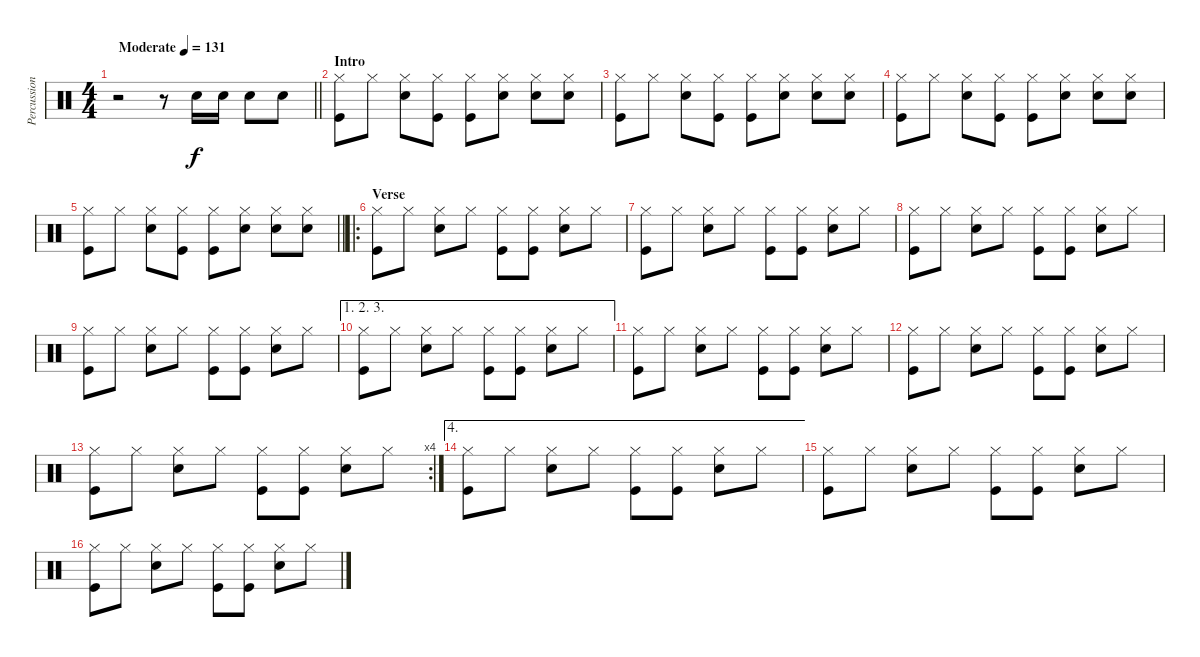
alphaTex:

\track ("Percussion" "Percussion") {instrument percussion}
\staff {score}
\articulation defaults
\ts (4 4)
\tempo (131 "Moderate")
\clef neutral
\barLineRight lightlight
\ks c
r.2{dy f} r.8 "Snare (hit) 2".16 "Snare (hit) 2".16 "Snare (hit) 2".8 "Snare (hit) 2".8 |
\section ("" "Intro")
("Hi-Hat (closed)" "Kick (hit)").8 "Hi-Hat (closed)".8 ("Hi-Hat (closed)" "Snare (hit) 2").8 ("Hi-Hat (closed)" "Kick (hit)").8 ("Hi-Hat (closed)" "Kick (hit)").8 ("Hi-Hat (closed)" "Snare (hit) 2").8 ("Hi-Hat (closed)" "Snare (hit) 2").8 ("Hi-Hat (closed)" "Snare (hit) 2").8 |
("Hi-Hat (closed)" "Kick (hit)").8 "Hi-Hat (closed)".8 ("Hi-Hat (closed)" "Snare (hit) 2").8 ("Hi-Hat (closed)" "Kick (hit)").8 ("Hi-Hat (closed)" "Kick (hit)").8 ("Hi-Hat (closed)" "Snare (hit) 2").8 ("Hi-Hat (closed)" "Snare (hit) 2").8 ("Hi-Hat (closed)" "Snare (hit) 2").8 |
("Hi-Hat (closed)" "Kick (hit)").8 "Hi-Hat (closed)".8 ("Hi-Hat (closed)" "Snare (hit) 2").8 ("Hi-Hat (closed)" "Kick (hit)").8 ("Hi-Hat (closed)" "Kick (hit)").8 ("Hi-Hat (closed)" "Snare (hit) 2").8 ("Hi-Hat (closed)" "Snare (hit) 2").8 ("Hi-Hat (closed)" "Snare (hit) 2").8 |
\barLineRight lightlight
("Hi-Hat (closed)" "Kick (hit)").8 "Hi-Hat (closed)".8 ("Hi-Hat (closed)" "Snare (hit) 2").8 ("Hi-Hat (closed)" "Kick (hit)").8 ("Hi-Hat (closed)" "Kick (hit)").8 ("Hi-Hat (closed)" "Snare (hit) 2").8 ("Hi-Hat (closed)" "Snare (hit) 2").8 ("Hi-Hat (closed)" "Snare (hit) 2").8 |
\ro
\section ("" "Verse")
("Hi-Hat (closed)" "Kick (hit)").8 "Hi-Hat (closed)".8 ("Hi-Hat (closed)" "Snare (hit) 2").8 "Hi-Hat (closed)".8 ("Hi-Hat (closed)" "Kick (hit)").8 ("Hi-Hat (closed)" "Kick (hit)").8 ("Hi-Hat (closed)" "Snare (hit) 2").8 "Hi-Hat (closed)".8 |
("Hi-Hat (closed)" "Kick (hit)").8 "Hi-Hat (closed)".8 ("Hi-Hat (closed)" "Snare (hit) 2").8 "Hi-Hat (closed)".8 ("Hi-Hat (closed)" "Kick (hit)").8 ("Hi-Hat (closed)" "Kick (hit)").8 ("Hi-Hat (closed)" "Snare (hit) 2").8 "Hi-Hat (closed)".8 |
("Hi-Hat (closed)" "Kick (hit)").8 "Hi-Hat (closed)".8 ("Hi-Hat (closed)" "Snare (hit) 2").8 "Hi-Hat (closed)".8 ("Hi-Hat (closed)" "Kick (hit)").8 ("Hi-Hat (closed)" "Kick (hit)").8 ("Hi-Hat (closed)" "Snare (hit) 2").8 "Hi-Hat (closed)".8 |
("Hi-Hat (closed)" "Kick (hit)").8 "Hi-Hat (closed)".8 ("Hi-Hat (closed)" "Snare (hit) 2").8 "Hi-Hat (closed)".8 ("Hi-Hat (closed)" "Kick (hit)").8 ("Hi-Hat (closed)" "Kick (hit)").8 ("Hi-Hat (closed)" "Snare (hit) 2").8 "Hi-Hat (closed)".8 |
\ae (1 2 3)
("Hi-Hat (closed)" "Kick (hit)").8 "Hi-Hat (closed)".8 ("Hi-Hat (closed)" "Snare (hit) 2").8 "Hi-Hat (closed)".8 ("Hi-Hat (closed)" "Kick (hit)").8 ("Hi-Hat (closed)" "Kick (hit)").8 ("Hi-Hat (closed)" "Snare (hit) 2").8 "Hi-Hat (closed)".8 |
("Hi-Hat (closed)" "Kick (hit)").8 "Hi-Hat (closed)".8 ("Hi-Hat (closed)" "Snare (hit) 2").8 "Hi-Hat (closed)".8 ("Hi-Hat (closed)" "Kick (hit)").8 ("Hi-Hat (closed)" "Kick (hit)").8 ("Hi-Hat (closed)" "Snare (hit) 2").8 "Hi-Hat (closed)".8 |
("Hi-Hat (closed)" "Kick (hit)").8 "Hi-Hat (closed)".8 ("Hi-Hat (closed)" "Snare (hit) 2").8 "Hi-Hat (closed)".8 ("Hi-Hat (closed)" "Kick (hit)").8 ("Hi-Hat (closed)" "Kick (hit)").8 ("Hi-Hat (closed)" "Snare (hit) 2").8 "Hi-Hat (closed)".8 |
\rc 4
("Hi-Hat (closed)" "Kick (hit)").8 "Hi-Hat (closed)".8 ("Hi-Hat (closed)" "Snare (hit) 2").8 "Hi-Hat (closed)".8 ("Hi-Hat (closed)" "Kick (hit)").8 ("Hi-Hat (closed)" "Kick (hit)").8 ("Hi-Hat (closed)" "Snare (hit) 2").8 "Hi-Hat (closed)".8 |
\ae 4
("Hi-Hat (closed)" "Kick (hit)").8 "Hi-Hat (closed)".8 ("Hi-Hat (closed)" "Snare (hit) 2").8 "Hi-Hat (closed)".8 ("Hi-Hat (closed)" "Kick (hit)").8 ("Hi-Hat (closed)" "Kick (hit)").8 ("Hi-Hat (closed)" "Snare (hit) 2").8 "Hi-Hat (closed)".8 |
("Hi-Hat (closed)" "Kick (hit)").8 "Hi-Hat (closed)".8 ("Hi-Hat (closed)" "Snare (hit) 2").8 "Hi-Hat (closed)".8 ("Hi-Hat (closed)" "Kick (hit)").8 ("Hi-Hat (closed)" "Kick (hit)").8 ("Hi-Hat (closed)" "Snare (hit) 2").8 "Hi-Hat (closed)".8 |
("Hi-Hat (closed)" "Kick (hit)").8 "Hi-Hat (closed)".8 ("Hi-Hat (closed)" "Snare (hit) 2").8 "Hi-Hat (closed)".8 ("Hi-Hat (closed)" "Kick (hit)").8 ("Hi-Hat (closed)" "Kick (hit)").8 ("Hi-Hat (closed)" "Snare (hit) 2").8 "Hi-Hat (closed)".8
